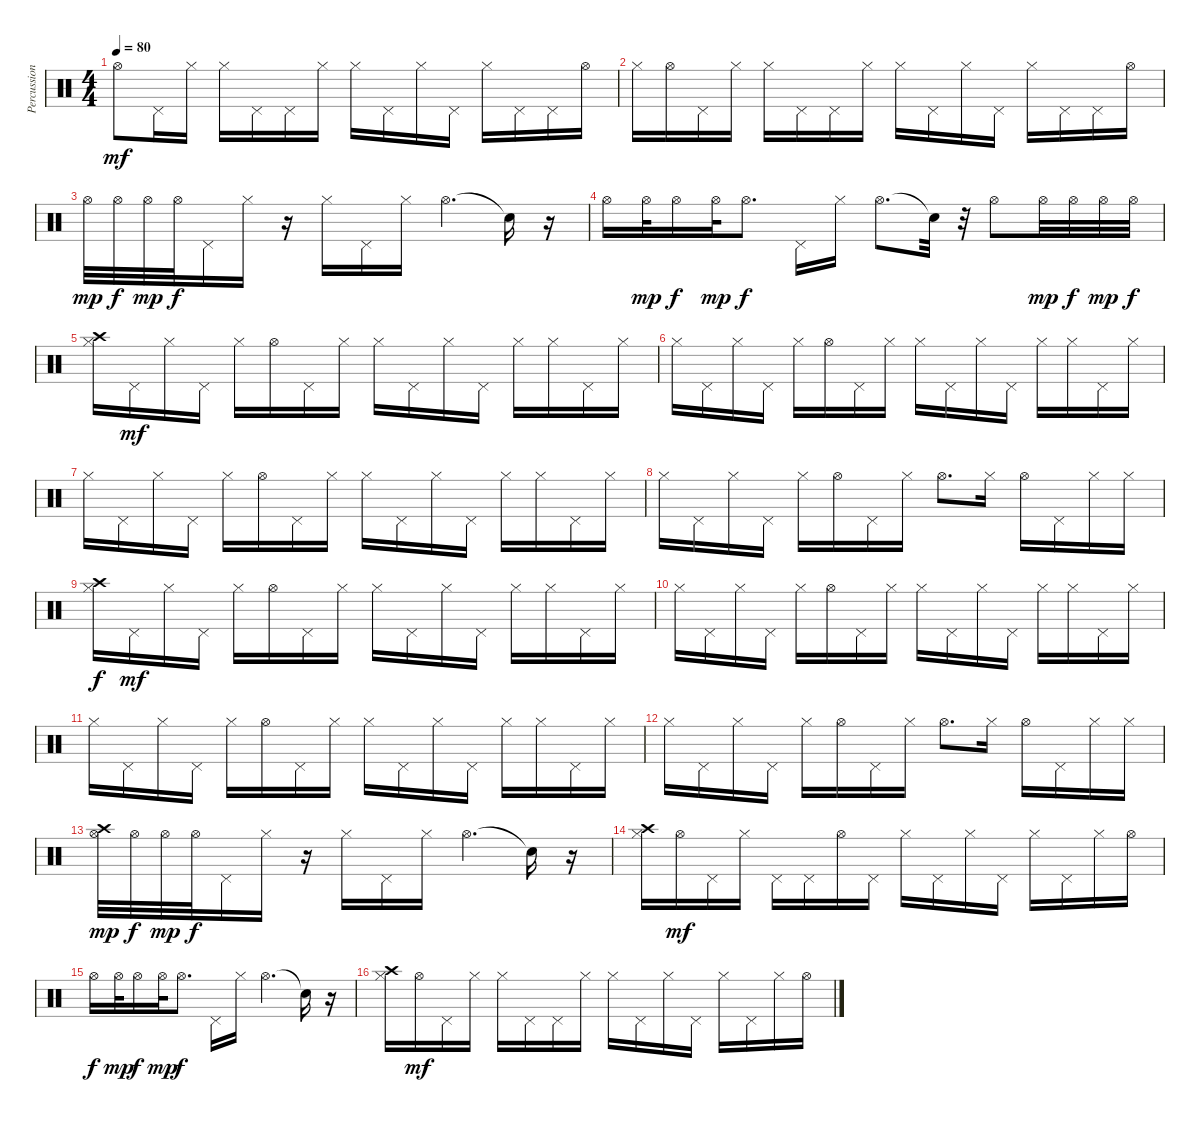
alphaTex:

\track ("Percussion" "Percussion") {instrument percussion}
\staff {score}
\articulation defaults
\ts (4 4)
\tempo 80
\clef neutral
\ks c "Hi-Hat (open)".8{dy mf} "Pedal Hi-Hat (hit)".16 "Hi-Hat (closed)".16 "Hi-Hat (closed)".16 "Pedal Hi-Hat (hit)".16 "Pedal Hi-Hat (hit)".16 "Hi-Hat (closed)".16 "Hi-Hat (closed)".16 "Pedal Hi-Hat (hit)".16 "Hi-Hat (closed)".16 "Pedal Hi-Hat (hit)".16 "Hi-Hat (closed)".16 "Pedal Hi-Hat (hit)".16 "Pedal Hi-Hat (hit)".16 "Hi-Hat (open)".16
|
"Hi-Hat (closed)".16 "Hi-Hat (open)".16 "Pedal Hi-Hat (hit)".16 "Hi-Hat (closed)".16 "Hi-Hat (closed)".16 "Pedal Hi-Hat (hit)".16 "Pedal Hi-Hat (hit)".16 "Hi-Hat (closed)".16 "Hi-Hat (closed)".16 "Pedal Hi-Hat (hit)".16 "Hi-Hat (closed)".16 "Pedal Hi-Hat (hit)".16 "Hi-Hat (closed)".16 "Pedal Hi-Hat (hit)".16 "Pedal Hi-Hat (hit)".16 "Hi-Hat (open)".16 |
"Hi-Hat (open)".32{dy mp} "Hi-Hat (open)".32{dy f} "Hi-Hat (open)".32{dy mp} "Hi-Hat (open)".32{dy f} "Pedal Hi-Hat (hit)".16 "Hi-Hat (closed)".16 r.16 "Hi-Hat (closed)".16 "Pedal Hi-Hat (hit)".16 "Hi-Hat (closed)".16 "Hi-Hat (open)".4{d} "Snare (hit)"{t}.16 r.16 |
"Hi-Hat (open)".16 "Hi-Hat (open)".32{dy mp} "Hi-Hat (open)".16{dy f} "Hi-Hat (open)".32{dy mp} "Hi-Hat (open)".8{d dy f} "Pedal Hi-Hat (hit)".16 "Hi-Hat (closed)".16 "Hi-Hat (open)".8{d} "Snare (hit)"{t}.32 r.32 "Hi-Hat (open)".8 "Hi-Hat (open)".32{dy mp} "Hi-Hat (open)".32{dy f} "Hi-Hat (open)".32{dy mp} "Hi-Hat (open)".32{dy f} |
("Hi-Hat (closed)" "Crash high (hit)").16 "Pedal Hi-Hat (hit)".16{dy mf} "Hi-Hat (closed)".16 "Pedal Hi-Hat (hit)".16 "Hi-Hat (closed)".16 "Hi-Hat (open)".16 "Pedal Hi-Hat (hit)".16 "Hi-Hat (closed)".16 "Hi-Hat (closed)".16 "Pedal Hi-Hat (hit)".16 "Hi-Hat (closed)".16 "Pedal Hi-Hat (hit)".16 "Hi-Hat (closed)".16 "Hi-Hat (closed)".16 "Pedal Hi-Hat (hit)".16 "Hi-Hat (closed)".16 |
"Hi-Hat (closed)".16 "Pedal Hi-Hat (hit)".16 "Hi-Hat (closed)".16 "Pedal Hi-Hat (hit)".16 "Hi-Hat (closed)".16 "Hi-Hat (open)".16 "Pedal Hi-Hat (hit)".16 "Hi-Hat (closed)".16 "Hi-Hat (closed)".16 "Pedal Hi-Hat (hit)".16 "Hi-Hat (closed)".16 "Pedal Hi-Hat (hit)".16 "Hi-Hat (closed)".16 "Hi-Hat (closed)".16 "Pedal Hi-Hat (hit)".16 "Hi-Hat (closed)".16 |
"Hi-Hat (closed)".16 "Pedal Hi-Hat (hit)".16 "Hi-Hat (closed)".16 "Pedal Hi-Hat (hit)".16 "Hi-Hat (closed)".16 "Hi-Hat (open)".16 "Pedal Hi-Hat (hit)".16 "Hi-Hat (closed)".16 "Hi-Hat (closed)".16 "Pedal Hi-Hat (hit)".16 "Hi-Hat (closed)".16 "Pedal Hi-Hat (hit)".16 "Hi-Hat (closed)".16 "Hi-Hat (closed)".16 "Pedal Hi-Hat (hit)".16 "Hi-Hat (closed)".16 |
"Hi-Hat (closed)".16 "Pedal Hi-Hat (hit)".16 "Hi-Hat (closed)".16 "Pedal Hi-Hat (hit)".16 "Hi-Hat (closed)".16 "Hi-Hat (open)".16 "Pedal Hi-Hat (hit)".16 "Hi-Hat (closed)".16 "Hi-Hat (open)".8{d} "Hi-Hat (closed)".16 "Hi-Hat (open)".16 "Pedal Hi-Hat (hit)".16 "Hi-Hat (closed)".16 "Hi-Hat (closed)".16 |
("Hi-Hat (closed)" "Crash high (hit)").16{dy f} "Pedal Hi-Hat (hit)".16{dy mf} "Hi-Hat (closed)".16 "Pedal Hi-Hat (hit)".16 "Hi-Hat (closed)".16 "Hi-Hat (open)".16 "Pedal Hi-Hat (hit)".16 "Hi-Hat (closed)".16 "Hi-Hat (closed)".16 "Pedal Hi-Hat (hit)".16 "Hi-Hat (closed)".16 "Pedal Hi-Hat (hit)".16 "Hi-Hat (closed)".16 "Hi-Hat (closed)".16 "Pedal Hi-Hat (hit)".16 "Hi-Hat (closed)".16 |
"Hi-Hat (closed)".16 "Pedal Hi-Hat (hit)".16 "Hi-Hat (closed)".16 "Pedal Hi-Hat (hit)".16 "Hi-Hat (closed)".16 "Hi-Hat (open)".16 "Pedal Hi-Hat (hit)".16 "Hi-Hat (closed)".16 "Hi-Hat (closed)".16 "Pedal Hi-Hat (hit)".16 "Hi-Hat (closed)".16 "Pedal Hi-Hat (hit)".16 "Hi-Hat (closed)".16 "Hi-Hat (closed)".16 "Pedal Hi-Hat (hit)".16 "Hi-Hat (closed)".16 |
"Hi-Hat (closed)".16 "Pedal Hi-Hat (hit)".16 "Hi-Hat (closed)".16 "Pedal Hi-Hat (hit)".16 "Hi-Hat (closed)".16 "Hi-Hat (open)".16 "Pedal Hi-Hat (hit)".16 "Hi-Hat (closed)".16 "Hi-Hat (closed)".16 "Pedal Hi-Hat (hit)".16 "Hi-Hat (closed)".16 "Pedal Hi-Hat (hit)".16 "Hi-Hat (closed)".16 "Hi-Hat (closed)".16 "Pedal Hi-Hat (hit)".16 "Hi-Hat (closed)".16 |
"Hi-Hat (closed)".16 "Pedal Hi-Hat (hit)".16 "Hi-Hat (closed)".16 "Pedal Hi-Hat (hit)".16 "Hi-Hat (closed)".16 "Hi-Hat (open)".16 "Pedal Hi-Hat (hit)".16 "Hi-Hat (closed)".16 "Hi-Hat (open)".8{d} "Hi-Hat (closed)".16 "Hi-Hat (open)".16 "Pedal Hi-Hat (hit)".16 "Hi-Hat (closed)".16 "Hi-Hat (closed)".16 |
("Hi-Hat (open)" "Crash high (hit)").32{dy mp} "Hi-Hat (open)".32{dy f} "Hi-Hat (open)".32{dy mp} "Hi-Hat (open)".32{dy f} "Pedal Hi-Hat (hit)".16 "Hi-Hat (closed)".16 r.16 "Hi-Hat (closed)".16 "Pedal Hi-Hat (hit)".16 "Hi-Hat (closed)".16 "Hi-Hat (open)".4{d} "Snare (hit)"{t}.16 r.16 |
("Hi-Hat (closed)" "Crash high (hit)").16 "Hi-Hat (open)".16{dy mf} "Pedal Hi-Hat (hit)".16 "Hi-Hat (closed)".16 "Pedal Hi-Hat (hit)".16 "Pedal Hi-Hat (hit)".16 "Hi-Hat (open)".16 "Pedal Hi-Hat (hit)".16 "Hi-Hat (closed)".16 "Pedal Hi-Hat (hit)".16 "Hi-Hat (closed)".16 "Pedal Hi-Hat (hit)".16 "Hi-Hat (closed)".16 "Pedal Hi-Hat (hit)".16 "Hi-Hat (closed)".16 "Hi-Hat (open)".16 |
"Hi-Hat (open)".16{dy f} "Hi-Hat (open)".32{dy mp} "Hi-Hat (open)".16{dy f} "Hi-Hat (open)".32{dy mp} "Hi-Hat (open)".8{d dy f} "Pedal Hi-Hat (hit)".16 "Hi-Hat (closed)".16 "Hi-Hat (open)".4{d} "Snare (hit)"{t}.16 r.16 |
("Hi-Hat (closed)" "Crash high (hit)").16 "Hi-Hat (open)".16{dy mf} "Pedal Hi-Hat (hit)".16 "Hi-Hat (closed)".16 "Hi-Hat (closed)".16 "Pedal Hi-Hat (hit)".16 "Pedal Hi-Hat (hit)".16 "Hi-Hat (closed)".16 "Hi-Hat (closed)".16 "Pedal Hi-Hat (hit)".16 "Hi-Hat (closed)".16 "Pedal Hi-Hat (hit)".16 "Hi-Hat (closed)".16 "Pedal Hi-Hat (hit)".16 "Hi-Hat (closed)".16 "Hi-Hat (open)".16
